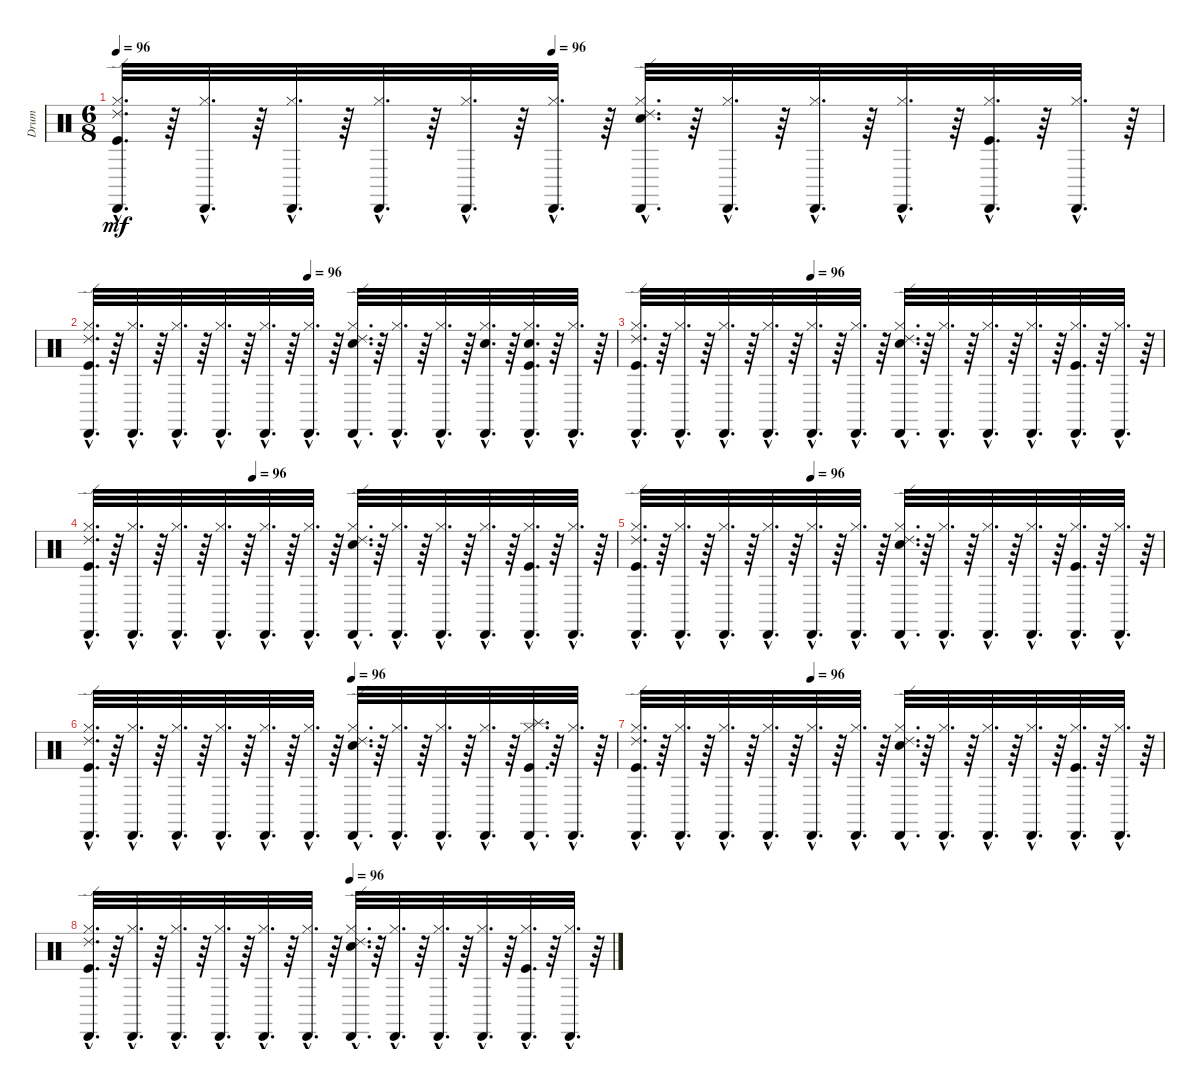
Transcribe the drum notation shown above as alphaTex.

\track ("Drum" "Drum") {instrument percussion}
\staff {score}
\articulation defaults
\ts (6 8)
\tempo 96
\tempo (96 0.4166666666666667)
\clef neutral
\ks c
("Kick (hit)"{hac} "Hi-Hat (closed)"{hac} "Cabasa (hit)"{hac} "Ride (edge) 2"{hac}).32{d dy mf} r.64 ("Hi-Hat (closed)"{hac} "Cabasa (hit)"{hac}).32{d} r.64 ("Hi-Hat (closed)"{hac} "Cabasa (hit)"{hac}).32{d} r.64 ("Hi-Hat (closed)"{hac} "Cabasa (hit)"{hac}).32{d} r.64 ("Hi-Hat (closed)"{hac} "Cabasa (hit)"{hac}).32{d} r.64 ("Hi-Hat (closed)"{hac} "Cabasa (hit)"{hac}).32{d} r.64 ("Snare (hit) 2"{hac} "Hi-Hat (closed)"{hac} "Cabasa (hit)"{hac} "Ride (edge) 2"{hac}).32{d} r.64 ("Hi-Hat (closed)"{hac} "Cabasa (hit)"{hac}).32{d} r.64 ("Hi-Hat (closed)"{hac} "Cabasa (hit)"{hac}).32{d} r.64 ("Hi-Hat (closed)"{hac} "Cabasa (hit)"{hac}).32{d} r.64 ("Kick (hit)"{hac} "Hi-Hat (closed)"{hac} "Cabasa (hit)"{hac}).32{d} r.64 ("Hi-Hat (closed)"{hac} "Cabasa (hit)"{hac}).32{d} r.64 |
\tempo (96 0.4166666666666667)
("Kick (hit)"{hac} "Hi-Hat (closed)"{hac} "Cabasa (hit)"{hac} "Ride (edge) 2"{hac}).32{d} r.64 ("Hi-Hat (closed)"{hac} "Cabasa (hit)"{hac}).32{d} r.64 ("Hi-Hat (closed)"{hac} "Cabasa (hit)"{hac}).32{d} r.64 ("Hi-Hat (closed)"{hac} "Cabasa (hit)"{hac}).32{d} r.64 ("Hi-Hat (closed)"{hac} "Cabasa (hit)"{hac}).32{d} r.64 ("Hi-Hat (closed)"{hac} "Cabasa (hit)"{hac}).32{d} r.64 ("Snare (hit) 2"{hac} "Hi-Hat (closed)"{hac} "Cabasa (hit)"{hac} "Ride (edge) 2"{hac}).32{d} r.64 ("Hi-Hat (closed)"{hac} "Cabasa (hit)"{hac}).32{d} r.64 ("Hi-Hat (closed)"{hac} "Cabasa (hit)"{hac}).32{d} r.64 ("Hi-Hat (closed)"{hac} "Cabasa (hit)"{hac} "Snare (hit) 2"{hac}).32{d} r.64 ("Kick (hit)"{hac} "Hi-Hat (closed)"{hac} "Cabasa (hit)"{hac} "Snare (hit) 2"{hac}).32{d} r.64 ("Hi-Hat (closed)"{hac} "Cabasa (hit)"{hac}).32{d} r.64 |
\tempo (96 0.3333333333333333)
("Ride (edge) 2"{hac} "Cabasa (hit)"{hac} "Kick (hit)"{hac} "Hi-Hat (closed)"{hac}).32{d} r.64 ("Cabasa (hit)"{hac} "Hi-Hat (closed)"{hac}).32{d} r.64 ("Cabasa (hit)"{hac} "Hi-Hat (closed)"{hac}).32{d} r.64 ("Cabasa (hit)"{hac} "Hi-Hat (closed)"{hac}).32{d} r.64 ("Cabasa (hit)"{hac} "Hi-Hat (closed)"{hac}).32{d} r.64 ("Cabasa (hit)"{hac} "Hi-Hat (closed)"{hac}).32{d} r.64 ("Ride (edge) 2"{hac} "Cabasa (hit)"{hac} "Snare (hit) 2"{hac} "Hi-Hat (closed)"{hac}).32{d} r.64 ("Cabasa (hit)"{hac} "Hi-Hat (closed)"{hac}).32{d} r.64 ("Cabasa (hit)"{hac} "Hi-Hat (closed)"{hac}).32{d} r.64 ("Cabasa (hit)"{hac} "Hi-Hat (closed)"{hac}).32{d} r.64 ("Kick (hit)"{hac} "Cabasa (hit)"{hac} "Hi-Hat (closed)"{hac}).32{d} r.64 ("Cabasa (hit)"{hac} "Hi-Hat (closed)"{hac}).32{d} r.64 |
\tempo (96 0.3125)
("Ride (edge) 2"{hac} "Cabasa (hit)"{hac} "Hi-Hat (closed)"{hac} "Kick (hit)"{hac}).32{d} r.64 ("Cabasa (hit)"{hac} "Hi-Hat (closed)"{hac}).32{d} r.64 ("Cabasa (hit)"{hac} "Hi-Hat (closed)"{hac}).32{d} r.64 ("Cabasa (hit)"{hac} "Hi-Hat (closed)"{hac}).32{d} r.64 ("Cabasa (hit)"{hac} "Hi-Hat (closed)"{hac}).32{d} r.64 ("Cabasa (hit)"{hac} "Hi-Hat (closed)"{hac}).32{d} r.64 ("Ride (edge) 2"{hac} "Cabasa (hit)"{hac} "Hi-Hat (closed)"{hac} "Snare (hit) 2"{hac}).32{d} r.64 ("Cabasa (hit)"{hac} "Hi-Hat (closed)"{hac}).32{d} r.64 ("Cabasa (hit)"{hac} "Hi-Hat (closed)"{hac}).32{d} r.64 ("Cabasa (hit)"{hac} "Hi-Hat (closed)"{hac}).32{d} r.64 ("Kick (hit)"{hac} "Cabasa (hit)"{hac} "Hi-Hat (closed)"{hac}).32{d} r.64 ("Cabasa (hit)"{hac} "Hi-Hat (closed)"{hac}).32{d} r.64 |
\tempo (96 0.3333333333333333)
("Kick (hit)"{hac} "Hi-Hat (closed)"{hac} "Cabasa (hit)"{hac} "Ride (edge) 2"{hac}).32{d} r.64 ("Hi-Hat (closed)"{hac} "Cabasa (hit)"{hac}).32{d} r.64 ("Hi-Hat (closed)"{hac} "Cabasa (hit)"{hac}).32{d} r.64 ("Hi-Hat (closed)"{hac} "Cabasa (hit)"{hac}).32{d} r.64 ("Hi-Hat (closed)"{hac} "Cabasa (hit)"{hac}).32{d} r.64 ("Hi-Hat (closed)"{hac} "Cabasa (hit)"{hac}).32{d} r.64 ("Snare (hit) 2"{hac} "Hi-Hat (closed)"{hac} "Cabasa (hit)"{hac} "Ride (edge) 2"{hac}).32{d} r.64 ("Hi-Hat (closed)"{hac} "Cabasa (hit)"{hac}).32{d} r.64 ("Hi-Hat (closed)"{hac} "Cabasa (hit)"{hac}).32{d} r.64 ("Hi-Hat (closed)"{hac} "Cabasa (hit)"{hac}).32{d} r.64 ("Kick (hit)"{hac} "Hi-Hat (closed)"{hac} "Cabasa (hit)"{hac}).32{d} r.64 ("Hi-Hat (closed)"{hac} "Cabasa (hit)"{hac}).32{d} r.64 |
\tempo (96 0.5)
("Kick (hit)"{hac} "Hi-Hat (closed)"{hac} "Cabasa (hit)"{hac} "Ride (edge) 2"{hac}).32{d} r.64 ("Hi-Hat (closed)"{hac} "Cabasa (hit)"{hac}).32{d} r.64 ("Hi-Hat (closed)"{hac} "Cabasa (hit)"{hac}).32{d} r.64 ("Hi-Hat (closed)"{hac} "Cabasa (hit)"{hac}).32{d} r.64 ("Hi-Hat (closed)"{hac} "Cabasa (hit)"{hac}).32{d} r.64 ("Hi-Hat (closed)"{hac} "Cabasa (hit)"{hac}).32{d} r.64 ("Snare (hit) 2"{hac} "Hi-Hat (closed)"{hac} "Cabasa (hit)"{hac} "Ride (edge) 2"{hac}).32{d} r.64 ("Hi-Hat (closed)"{hac} "Cabasa (hit)"{hac}).32{d} r.64 ("Hi-Hat (closed)"{hac} "Cabasa (hit)"{hac}).32{d} r.64 ("Hi-Hat (closed)"{hac} "Cabasa (hit)"{hac}).32{d} r.64 ("Kick (hit)"{hac} "Splash (hit)"{hac} "Hi-Hat (closed)"{hac} "Cabasa (hit)"{hac}).32{d} r.64 ("Hi-Hat (closed)"{hac} "Cabasa (hit)"{hac}).32{d} r.64 |
\tempo (96 0.3333333333333333)
("Ride (edge) 2"{hac} "Cabasa (hit)"{hac} "Kick (hit)"{hac} "Hi-Hat (closed)"{hac}).32{d} r.64 ("Cabasa (hit)"{hac} "Hi-Hat (closed)"{hac}).32{d} r.64 ("Cabasa (hit)"{hac} "Hi-Hat (closed)"{hac}).32{d} r.64 ("Cabasa (hit)"{hac} "Hi-Hat (closed)"{hac}).32{d} r.64 ("Cabasa (hit)"{hac} "Hi-Hat (closed)"{hac}).32{d} r.64 ("Cabasa (hit)"{hac} "Hi-Hat (closed)"{hac}).32{d} r.64 ("Ride (edge) 2"{hac} "Cabasa (hit)"{hac} "Snare (hit) 2"{hac} "Hi-Hat (closed)"{hac}).32{d} r.64 ("Cabasa (hit)"{hac} "Hi-Hat (closed)"{hac}).32{d} r.64 ("Cabasa (hit)"{hac} "Hi-Hat (closed)"{hac}).32{d} r.64 ("Cabasa (hit)"{hac} "Hi-Hat (closed)"{hac}).32{d} r.64 ("Kick (hit)"{hac} "Cabasa (hit)"{hac} "Hi-Hat (closed)"{hac}).32{d} r.64 ("Cabasa (hit)"{hac} "Hi-Hat (closed)"{hac}).32{d} r.64 |
\tempo (96 0.5)
("Ride (edge) 2"{hac} "Cabasa (hit)"{hac} "Hi-Hat (closed)"{hac} "Kick (hit)"{hac}).32{d} r.64 ("Cabasa (hit)"{hac} "Hi-Hat (closed)"{hac}).32{d} r.64 ("Cabasa (hit)"{hac} "Hi-Hat (closed)"{hac}).32{d} r.64 ("Cabasa (hit)"{hac} "Hi-Hat (closed)"{hac}).32{d} r.64 ("Cabasa (hit)"{hac} "Hi-Hat (closed)"{hac}).32{d} r.64 ("Cabasa (hit)"{hac} "Hi-Hat (closed)"{hac}).32{d} r.64 ("Ride (edge) 2"{hac} "Cabasa (hit)"{hac} "Hi-Hat (closed)"{hac} "Snare (hit) 2"{hac}).32{d} r.64 ("Cabasa (hit)"{hac} "Hi-Hat (closed)"{hac}).32{d} r.64 ("Cabasa (hit)"{hac} "Hi-Hat (closed)"{hac}).32{d} r.64 ("Cabasa (hit)"{hac} "Hi-Hat (closed)"{hac}).32{d} r.64 ("Kick (hit)"{hac} "Cabasa (hit)"{hac} "Hi-Hat (closed)"{hac}).32{d} r.64 ("Cabasa (hit)"{hac} "Hi-Hat (closed)"{hac}).32{d} r.64
